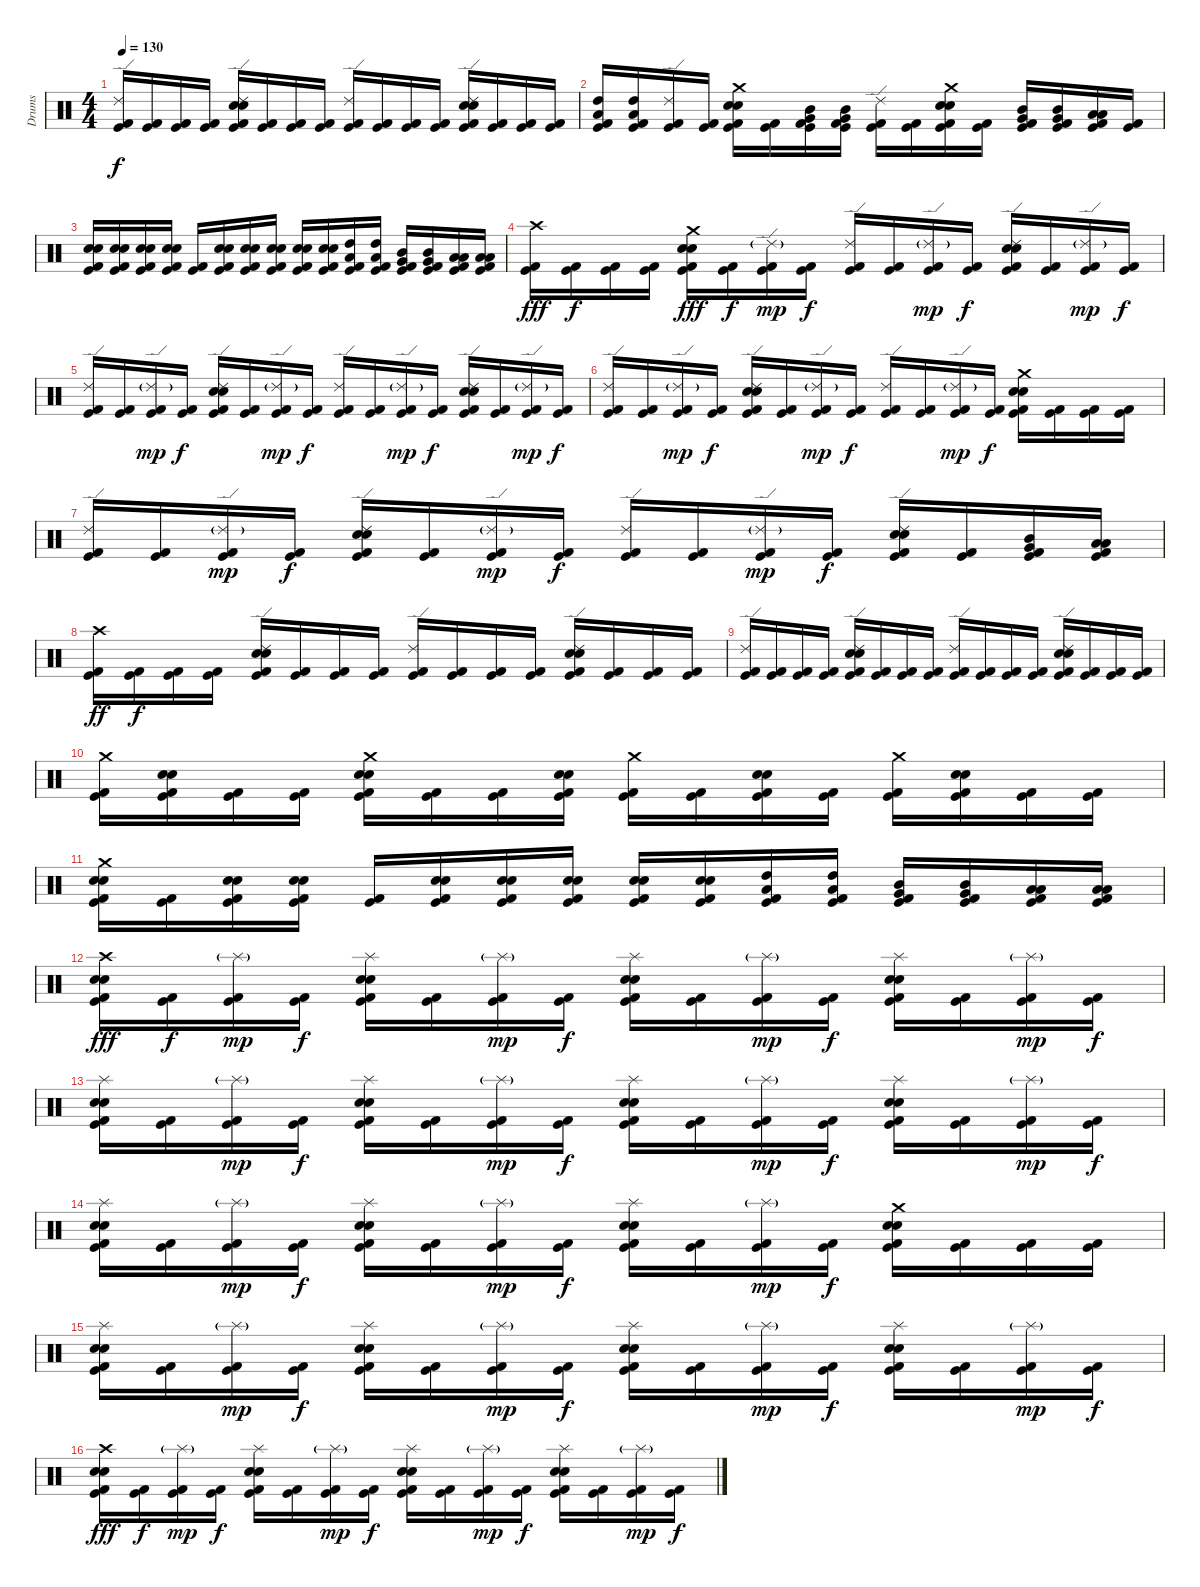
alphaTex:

\track ("Drums" "Drums") {instrument percussion}
\staff {score}
\articulation defaults
\ts (4 4)
\tempo 130
\clef neutral
\ks c
("Ride (edge) 2" "Kick (hit) 2" "Kick (hit)").16{dy f} ("Kick (hit) 2" "Kick (hit)").16 ("Kick (hit) 2" "Kick (hit)").16 ("Kick (hit) 2" "Kick (hit)").16 ("Ride (edge) 2" "Electric Snare (hit)" "Snare (hit) 2" "Kick (hit) 2" "Kick (hit)").16 ("Kick (hit) 2" "Kick (hit)").16 ("Kick (hit) 2" "Kick (hit)").16 ("Kick (hit) 2" "Kick (hit)").16 ("Ride (edge) 2" "Kick (hit) 2" "Kick (hit)").16 ("Kick (hit) 2" "Kick (hit)").16 ("Kick (hit) 2" "Kick (hit)").16 ("Kick (hit) 2" "Kick (hit)").16 ("Ride (edge) 2" "Electric Snare (hit)" "Snare (hit) 2" "Kick (hit) 2" "Kick (hit)").16 ("Kick (hit) 2" "Kick (hit)").16 ("Kick (hit) 2" "Kick (hit)").16 ("Kick (hit) 2" "Kick (hit)").16 |
("High Tom (hit)" "Low Tom (hit)" "Kick (hit) 2" "Kick (hit)").16 ("High Tom (hit)" "Low Tom (hit)" "Kick (hit) 2" "Kick (hit)").16 ("Ride (edge) 2" "Kick (hit) 2" "Kick (hit)").16 ("Kick (hit) 2" "Kick (hit)").16 ("Crash medium (hit)" "Electric Snare (hit)" "Snare (hit) 2" "Kick (hit) 2" "Kick (hit)").16 ("Kick (hit) 2" "Kick (hit)").16 ("Mid Tom (hit)" "Very Low Tom (hit)" "Kick (hit) 2" "Kick (hit)").16 ("Mid Tom (hit)" "Very Low Tom (hit)" "Kick (hit) 2" "Kick (hit)").16 ("Ride (edge) 2" "Kick (hit) 2" "Kick (hit)").16 ("Kick (hit) 2" "Kick (hit)").16 ("Crash medium (hit)" "Electric Snare (hit)" "Snare (hit) 2" "Kick (hit) 2" "Kick (hit)").16 ("Kick (hit) 2" "Kick (hit)").16 ("Mid Tom (hit)" "Very Low Tom (hit)" "Kick (hit) 2" "Kick (hit)").16 ("Mid Tom (hit)" "Very Low Tom (hit)" "Kick (hit) 2" "Kick (hit)").16 ("Low Tom (hit)" "Low Floor Tom (hit)" "Kick (hit) 2" "Kick (hit)").16 ("Kick (hit) 2" "Kick (hit)").16 |
("Electric Snare (hit)" "Snare (hit) 2" "Kick (hit) 2" "Kick (hit)").16 ("Electric Snare (hit)" "Snare (hit) 2" "Kick (hit) 2" "Kick (hit)").16 ("Electric Snare (hit)" "Snare (hit) 2" "Kick (hit) 2" "Kick (hit)").16 ("Electric Snare (hit)" "Snare (hit) 2" "Kick (hit) 2" "Kick (hit)").16 ("Kick (hit) 2" "Kick (hit)").16 ("Electric Snare (hit)" "Snare (hit) 2" "Kick (hit) 2" "Kick (hit)").16 ("Electric Snare (hit)" "Snare (hit) 2" "Kick (hit) 2" "Kick (hit)").16 ("Electric Snare (hit)" "Snare (hit) 2" "Kick (hit) 2" "Kick (hit)").16 ("Electric Snare (hit)" "Snare (hit) 2" "Kick (hit) 2" "Kick (hit)").16 ("Electric Snare (hit)" "Snare (hit) 2" "Kick (hit) 2" "Kick (hit)").16 ("High Tom (hit)" "Low Tom (hit)" "Kick (hit) 2" "Kick (hit)").16 ("High Tom (hit)" "Low Tom (hit)" "Kick (hit) 2" "Kick (hit)").16 ("Mid Tom (hit)" "Very Low Tom (hit)" "Kick (hit) 2" "Kick (hit)").16 ("Mid Tom (hit)" "Very Low Tom (hit)" "Kick (hit) 2" "Kick (hit)").16 ("Low Tom (hit)" "Low Floor Tom (hit)" "Kick (hit) 2" "Kick (hit)").16 ("Low Tom (hit)" "Low Floor Tom (hit)" "Kick (hit) 2" "Kick (hit)").16 |
("Crash high (hit)" "Kick (hit) 2" "Kick (hit)").16{dy fff} ("Kick (hit) 2" "Kick (hit)").16{dy f} ("Kick (hit) 2" "Kick (hit)").16 ("Kick (hit) 2" "Kick (hit)").16 ("Crash medium (hit)" "Electric Snare (hit)" "Snare (hit) 2" "Kick (hit) 2" "Kick (hit)").16{dy fff} ("Kick (hit) 2" "Kick (hit)").16{dy f} ("Ride (edge) 2"{g} "Kick (hit) 2" "Kick (hit)").16{dy mp} ("Kick (hit) 2" "Kick (hit)").16{dy f} ("Ride (edge) 2" "Kick (hit) 2" "Kick (hit)").16 ("Kick (hit) 2" "Kick (hit)").16 ("Ride (edge) 2"{g} "Kick (hit) 2" "Kick (hit)").16{dy mp} ("Kick (hit) 2" "Kick (hit)").16{dy f} ("Ride (edge) 2" "Electric Snare (hit)" "Snare (hit) 2" "Kick (hit) 2" "Kick (hit)").16 ("Kick (hit) 2" "Kick (hit)").16 ("Ride (edge) 2"{g} "Kick (hit) 2" "Kick (hit)").16{dy mp} ("Kick (hit) 2" "Kick (hit)").16{dy f} |
("Ride (edge) 2" "Kick (hit) 2" "Kick (hit)").16 ("Kick (hit) 2" "Kick (hit)").16 ("Ride (edge) 2"{g} "Kick (hit) 2" "Kick (hit)").16{dy mp} ("Kick (hit) 2" "Kick (hit)").16{dy f} ("Ride (edge) 2" "Electric Snare (hit)" "Snare (hit) 2" "Kick (hit) 2" "Kick (hit)").16 ("Kick (hit) 2" "Kick (hit)").16 ("Ride (edge) 2"{g} "Kick (hit) 2" "Kick (hit)").16{dy mp} ("Kick (hit) 2" "Kick (hit)").16{dy f} ("Ride (edge) 2" "Kick (hit) 2" "Kick (hit)").16 ("Kick (hit) 2" "Kick (hit)").16 ("Ride (edge) 2"{g} "Kick (hit) 2" "Kick (hit)").16{dy mp} ("Kick (hit) 2" "Kick (hit)").16{dy f} ("Ride (edge) 2" "Electric Snare (hit)" "Snare (hit) 2" "Kick (hit) 2" "Kick (hit)").16 ("Kick (hit) 2" "Kick (hit)").16 ("Ride (edge) 2"{g} "Kick (hit) 2" "Kick (hit)").16{dy mp} ("Kick (hit) 2" "Kick (hit)").16{dy f} |
("Ride (edge) 2" "Kick (hit) 2" "Kick (hit)").16 ("Kick (hit) 2" "Kick (hit)").16 ("Ride (edge) 2"{g} "Kick (hit) 2" "Kick (hit)").16{dy mp} ("Kick (hit) 2" "Kick (hit)").16{dy f} ("Ride (edge) 2" "Electric Snare (hit)" "Snare (hit) 2" "Kick (hit) 2" "Kick (hit)").16 ("Kick (hit) 2" "Kick (hit)").16 ("Ride (edge) 2"{g} "Kick (hit) 2" "Kick (hit)").16{dy mp} ("Kick (hit) 2" "Kick (hit)").16{dy f} ("Ride (edge) 2" "Kick (hit) 2" "Kick (hit)").16 ("Kick (hit) 2" "Kick (hit)").16 ("Ride (edge) 2"{g} "Kick (hit) 2" "Kick (hit)").16{dy mp} ("Kick (hit) 2" "Kick (hit)").16{dy f} ("Crash medium (hit)" "Electric Snare (hit)" "Snare (hit) 2" "Kick (hit) 2" "Kick (hit)").16 ("Kick (hit) 2" "Kick (hit)").16 ("Kick (hit) 2" "Kick (hit)").16 ("Kick (hit) 2" "Kick (hit)").16 |
("Ride (edge) 2" "Kick (hit) 2" "Kick (hit)").16 ("Kick (hit) 2" "Kick (hit)").16 ("Ride (edge) 2"{g} "Kick (hit) 2" "Kick (hit)").16{dy mp} ("Kick (hit) 2" "Kick (hit)").16{dy f} ("Ride (edge) 2" "Electric Snare (hit)" "Snare (hit) 2" "Kick (hit) 2" "Kick (hit)").16 ("Kick (hit) 2" "Kick (hit)").16 ("Ride (edge) 2"{g} "Kick (hit) 2" "Kick (hit)").16{dy mp} ("Kick (hit) 2" "Kick (hit)").16{dy f} ("Ride (edge) 2" "Kick (hit) 2" "Kick (hit)").16 ("Kick (hit) 2" "Kick (hit)").16 ("Ride (edge) 2"{g} "Kick (hit) 2" "Kick (hit)").16{dy mp} ("Kick (hit) 2" "Kick (hit)").16{dy f} ("Ride (edge) 2" "Electric Snare (hit)" "Snare (hit) 2" "Kick (hit) 2" "Kick (hit)").16 ("Kick (hit) 2" "Kick (hit)").16 ("Mid Tom (hit)" "Very Low Tom (hit)" "Kick (hit) 2" "Kick (hit)").16 ("Low Tom (hit)" "Low Floor Tom (hit)" "Kick (hit) 2" "Kick (hit)").16 |
("Crash high (hit)" "Kick (hit) 2" "Kick (hit)").16{dy ff} ("Kick (hit) 2" "Kick (hit)").16{dy f} ("Kick (hit) 2" "Kick (hit)").16 ("Kick (hit) 2" "Kick (hit)").16 ("Ride (edge) 2" "Electric Snare (hit)" "Snare (hit) 2" "Kick (hit) 2" "Kick (hit)").16 ("Kick (hit) 2" "Kick (hit)").16 ("Kick (hit) 2" "Kick (hit)").16 ("Kick (hit) 2" "Kick (hit)").16 ("Ride (edge) 2" "Kick (hit) 2" "Kick (hit)").16 ("Kick (hit) 2" "Kick (hit)").16 ("Kick (hit) 2" "Kick (hit)").16 ("Kick (hit) 2" "Kick (hit)").16 ("Ride (edge) 2" "Electric Snare (hit)" "Snare (hit) 2" "Kick (hit) 2" "Kick (hit)").16 ("Kick (hit) 2" "Kick (hit)").16 ("Kick (hit) 2" "Kick (hit)").16 ("Kick (hit) 2" "Kick (hit)").16 |
("Ride (edge) 2" "Kick (hit) 2" "Kick (hit)").16 ("Kick (hit) 2" "Kick (hit)").16 ("Kick (hit) 2" "Kick (hit)").16 ("Kick (hit) 2" "Kick (hit)").16 ("Ride (edge) 2" "Electric Snare (hit)" "Snare (hit) 2" "Kick (hit) 2" "Kick (hit)").16 ("Kick (hit) 2" "Kick (hit)").16 ("Kick (hit) 2" "Kick (hit)").16 ("Kick (hit) 2" "Kick (hit)").16 ("Ride (edge) 2" "Kick (hit) 2" "Kick (hit)").16 ("Kick (hit) 2" "Kick (hit)").16 ("Kick (hit) 2" "Kick (hit)").16 ("Kick (hit) 2" "Kick (hit)").16 ("Ride (edge) 2" "Electric Snare (hit)" "Snare (hit) 2" "Kick (hit) 2" "Kick (hit)").16 ("Kick (hit) 2" "Kick (hit)").16 ("Kick (hit) 2" "Kick (hit)").16 ("Kick (hit) 2" "Kick (hit)").16 |
("Crash medium (hit)" "Kick (hit) 2" "Kick (hit)").16 ("Electric Snare (hit)" "Snare (hit) 2" "Kick (hit) 2" "Kick (hit)").16 ("Kick (hit) 2" "Kick (hit)").16 ("Kick (hit) 2" "Kick (hit)").16 ("Crash medium (hit)" "Electric Snare (hit)" "Snare (hit) 2" "Kick (hit) 2" "Kick (hit)").16 ("Kick (hit) 2" "Kick (hit)").16 ("Kick (hit) 2" "Kick (hit)").16 ("Electric Snare (hit)" "Snare (hit) 2" "Kick (hit) 2" "Kick (hit)").16 ("Crash medium (hit)" "Kick (hit) 2" "Kick (hit)").16 ("Kick (hit) 2" "Kick (hit)").16 ("Electric Snare (hit)" "Snare (hit) 2" "Kick (hit) 2" "Kick (hit)").16 ("Kick (hit) 2" "Kick (hit)").16 ("Crash medium (hit)" "Kick (hit) 2" "Kick (hit)").16 ("Electric Snare (hit)" "Snare (hit) 2" "Kick (hit) 2" "Kick (hit)").16 ("Kick (hit) 2" "Kick (hit)").16 ("Kick (hit) 2" "Kick (hit)").16 |
("Crash medium (hit)" "Electric Snare (hit)" "Snare (hit) 2" "Kick (hit) 2" "Kick (hit)").16 ("Kick (hit) 2" "Kick (hit)").16 ("Electric Snare (hit)" "Snare (hit) 2" "Kick (hit) 2" "Kick (hit)").16 ("Electric Snare (hit)" "Snare (hit) 2" "Kick (hit) 2" "Kick (hit)").16 ("Kick (hit) 2" "Kick (hit)").16 ("Electric Snare (hit)" "Snare (hit) 2" "Kick (hit) 2" "Kick (hit)").16 ("Electric Snare (hit)" "Snare (hit) 2" "Kick (hit) 2" "Kick (hit)").16 ("Electric Snare (hit)" "Snare (hit) 2" "Kick (hit) 2" "Kick (hit)").16 ("Electric Snare (hit)" "Snare (hit) 2" "Kick (hit) 2" "Kick (hit)").16 ("Electric Snare (hit)" "Snare (hit) 2" "Kick (hit) 2" "Kick (hit)").16 ("High Tom (hit)" "Low Tom (hit)" "Kick (hit) 2" "Kick (hit)").16 ("High Tom (hit)" "Low Tom (hit)" "Kick (hit) 2" "Kick (hit)").16 ("Mid Tom (hit)" "Very Low Tom (hit)" "Kick (hit) 2" "Kick (hit)").16 ("Mid Tom (hit)" "Very Low Tom (hit)" "Kick (hit) 2" "Kick (hit)").16 ("Low Tom (hit)" "Low Floor Tom (hit)" "Kick (hit) 2" "Kick (hit)").16 ("Low Tom (hit)" "Low Floor Tom (hit)" "Kick (hit) 2" "Kick (hit)").16 |
("Crash high (hit)" "Electric Snare (hit)" "Snare (hit) 2" "Kick (hit) 2" "Kick (hit)").16{dy fff} ("Kick (hit) 2" "Kick (hit)").16{dy f} ("Splash (hit)"{g} "Kick (hit) 2" "Kick (hit)").16{dy mp} ("Kick (hit) 2" "Kick (hit)").16{dy f} ("Splash (hit)" "Electric Snare (hit)" "Snare (hit) 2" "Kick (hit) 2" "Kick (hit)").16 ("Kick (hit) 2" "Kick (hit)").16 ("Splash (hit)"{g} "Kick (hit) 2" "Kick (hit)").16{dy mp} ("Kick (hit) 2" "Kick (hit)").16{dy f} ("Splash (hit)" "Electric Snare (hit)" "Snare (hit) 2" "Kick (hit) 2" "Kick (hit)").16 ("Kick (hit) 2" "Kick (hit)").16 ("Splash (hit)"{g} "Kick (hit) 2" "Kick (hit)").16{dy mp} ("Kick (hit) 2" "Kick (hit)").16{dy f} ("Splash (hit)" "Electric Snare (hit)" "Snare (hit) 2" "Kick (hit) 2" "Kick (hit)").16 ("Kick (hit) 2" "Kick (hit)").16 ("Splash (hit)"{g} "Kick (hit) 2" "Kick (hit)").16{dy mp} ("Kick (hit) 2" "Kick (hit)").16{dy f} |
("Splash (hit)" "Electric Snare (hit)" "Snare (hit) 2" "Kick (hit) 2" "Kick (hit)").16 ("Kick (hit) 2" "Kick (hit)").16 ("Splash (hit)"{g} "Kick (hit) 2" "Kick (hit)").16{dy mp} ("Kick (hit) 2" "Kick (hit)").16{dy f} ("Splash (hit)" "Electric Snare (hit)" "Snare (hit) 2" "Kick (hit) 2" "Kick (hit)").16 ("Kick (hit) 2" "Kick (hit)").16 ("Splash (hit)"{g} "Kick (hit) 2" "Kick (hit)").16{dy mp} ("Kick (hit) 2" "Kick (hit)").16{dy f} ("Splash (hit)" "Electric Snare (hit)" "Snare (hit) 2" "Kick (hit) 2" "Kick (hit)").16 ("Kick (hit) 2" "Kick (hit)").16 ("Splash (hit)"{g} "Kick (hit) 2" "Kick (hit)").16{dy mp} ("Kick (hit) 2" "Kick (hit)").16{dy f} ("Splash (hit)" "Electric Snare (hit)" "Snare (hit) 2" "Kick (hit) 2" "Kick (hit)").16 ("Kick (hit) 2" "Kick (hit)").16 ("Splash (hit)"{g} "Kick (hit) 2" "Kick (hit)").16{dy mp} ("Kick (hit) 2" "Kick (hit)").16{dy f} |
("Splash (hit)" "Electric Snare (hit)" "Snare (hit) 2" "Kick (hit) 2" "Kick (hit)").16 ("Kick (hit) 2" "Kick (hit)").16 ("Splash (hit)"{g} "Kick (hit) 2" "Kick (hit)").16{dy mp} ("Kick (hit) 2" "Kick (hit)").16{dy f} ("Splash (hit)" "Electric Snare (hit)" "Snare (hit) 2" "Kick (hit) 2" "Kick (hit)").16 ("Kick (hit) 2" "Kick (hit)").16 ("Splash (hit)"{g} "Kick (hit) 2" "Kick (hit)").16{dy mp} ("Kick (hit) 2" "Kick (hit)").16{dy f} ("Splash (hit)" "Electric Snare (hit)" "Snare (hit) 2" "Kick (hit) 2" "Kick (hit)").16 ("Kick (hit) 2" "Kick (hit)").16 ("Splash (hit)"{g} "Kick (hit) 2" "Kick (hit)").16{dy mp} ("Kick (hit) 2" "Kick (hit)").16{dy f} ("Crash medium (hit)" "Electric Snare (hit)" "Snare (hit) 2" "Kick (hit) 2" "Kick (hit)").16 ("Kick (hit) 2" "Kick (hit)").16 ("Kick (hit) 2" "Kick (hit)").16 ("Kick (hit) 2" "Kick (hit)").16 |
("Splash (hit)" "Electric Snare (hit)" "Snare (hit) 2" "Kick (hit) 2" "Kick (hit)").16 ("Kick (hit) 2" "Kick (hit)").16 ("Splash (hit)"{g} "Kick (hit) 2" "Kick (hit)").16{dy mp} ("Kick (hit) 2" "Kick (hit)").16{dy f} ("Splash (hit)" "Electric Snare (hit)" "Snare (hit) 2" "Kick (hit) 2" "Kick (hit)").16 ("Kick (hit) 2" "Kick (hit)").16 ("Splash (hit)"{g} "Kick (hit) 2" "Kick (hit)").16{dy mp} ("Kick (hit) 2" "Kick (hit)").16{dy f} ("Splash (hit)" "Electric Snare (hit)" "Snare (hit) 2" "Kick (hit) 2" "Kick (hit)").16 ("Kick (hit) 2" "Kick (hit)").16 ("Splash (hit)"{g} "Kick (hit) 2" "Kick (hit)").16{dy mp} ("Kick (hit) 2" "Kick (hit)").16{dy f} ("Splash (hit)" "Electric Snare (hit)" "Snare (hit) 2" "Kick (hit) 2" "Kick (hit)").16 ("Kick (hit) 2" "Kick (hit)").16 ("Splash (hit)"{g} "Kick (hit) 2" "Kick (hit)").16{dy mp} ("Kick (hit) 2" "Kick (hit)").16{dy f} |
("Crash high (hit)" "Electric Snare (hit)" "Snare (hit) 2" "Kick (hit) 2" "Kick (hit)").16{dy fff} ("Kick (hit) 2" "Kick (hit)").16{dy f} ("Splash (hit)"{g} "Kick (hit) 2" "Kick (hit)").16{dy mp} ("Kick (hit) 2" "Kick (hit)").16{dy f} ("Splash (hit)" "Electric Snare (hit)" "Snare (hit) 2" "Kick (hit) 2" "Kick (hit)").16 ("Kick (hit) 2" "Kick (hit)").16 ("Splash (hit)"{g} "Kick (hit) 2" "Kick (hit)").16{dy mp} ("Kick (hit) 2" "Kick (hit)").16{dy f} ("Splash (hit)" "Electric Snare (hit)" "Snare (hit) 2" "Kick (hit) 2" "Kick (hit)").16 ("Kick (hit) 2" "Kick (hit)").16 ("Splash (hit)"{g} "Kick (hit) 2" "Kick (hit)").16{dy mp} ("Kick (hit) 2" "Kick (hit)").16{dy f} ("Splash (hit)" "Electric Snare (hit)" "Snare (hit) 2" "Kick (hit) 2" "Kick (hit)").16 ("Kick (hit) 2" "Kick (hit)").16 ("Splash (hit)"{g} "Kick (hit) 2" "Kick (hit)").16{dy mp} ("Kick (hit) 2" "Kick (hit)").16{dy f}
